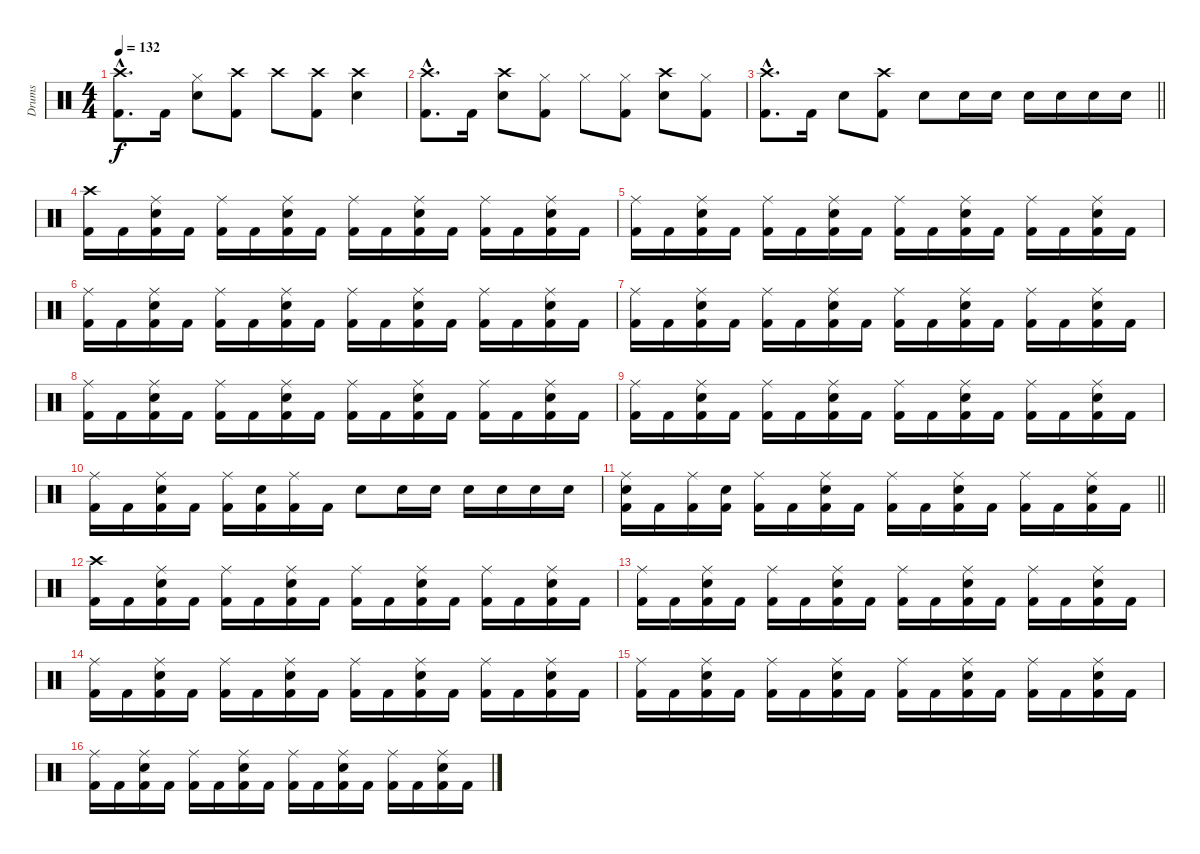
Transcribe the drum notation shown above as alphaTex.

\track ("Drums" "Drums") {instrument percussion}
\staff {score}
\articulation defaults
\ts (4 4)
\tempo 132
\clef neutral
\ks c
("Crash high (hit)"{hac} "Kick (hit) 2"{hac}).8{d dy f} "Kick (hit) 2".16 ("Hi-Hat (closed)" "Snare (hit) 2").8 ("Crash high (hit)" "Kick (hit) 2").8 "Crash high (hit)".8 ("Crash high (hit)" "Kick (hit) 2").8 ("Crash high (hit)" "Snare (hit) 2").4 |
("Crash high (hit)"{hac} "Kick (hit) 2"{hac}).8{d} "Kick (hit) 2".16 ("Crash high (hit)" "Snare (hit) 2").8 ("Hi-Hat (closed)" "Kick (hit) 2").8 "Hi-Hat (closed)".8 ("Hi-Hat (closed)" "Kick (hit) 2").8 ("Crash high (hit)" "Snare (hit) 2").8 ("Hi-Hat (closed)" "Kick (hit) 2").8 |
\barLineRight lightlight
("Crash high (hit)"{hac} "Kick (hit) 2"{hac}).8{d} "Kick (hit) 2".16 "Snare (hit) 2".8 ("Crash high (hit)" "Kick (hit) 2").8 "Snare (hit) 2".8 "Snare (hit) 2".16 "Snare (hit) 2".16 "Snare (hit) 2".16 "Snare (hit) 2".16 "Snare (hit) 2".16 "Snare (hit) 2".16 |
("Crash high (hit)" "Kick (hit) 2").16 "Kick (hit) 2".16 ("Ride (middle)" "Snare (hit) 2" "Kick (hit) 2").16 "Kick (hit) 2".16 ("Ride (middle)" "Kick (hit) 2").16 "Kick (hit) 2".16 ("Ride (middle)" "Snare (hit) 2" "Kick (hit) 2").16 "Kick (hit) 2".16 ("Ride (middle)" "Kick (hit) 2").16 "Kick (hit) 2".16 ("Ride (middle)" "Snare (hit) 2" "Kick (hit) 2").16 "Kick (hit) 2".16 ("Ride (middle)" "Kick (hit) 2").16 "Kick (hit) 2".16 ("Ride (middle)" "Snare (hit) 2" "Kick (hit) 2").16 "Kick (hit) 2".16 |
("Ride (middle)" "Kick (hit) 2").16 "Kick (hit) 2".16 ("Ride (middle)" "Snare (hit) 2" "Kick (hit) 2").16 "Kick (hit) 2".16 ("Ride (middle)" "Kick (hit) 2").16 "Kick (hit) 2".16 ("Ride (middle)" "Snare (hit) 2" "Kick (hit) 2").16 "Kick (hit) 2".16 ("Ride (middle)" "Kick (hit) 2").16 "Kick (hit) 2".16 ("Ride (middle)" "Snare (hit) 2" "Kick (hit) 2").16 "Kick (hit) 2".16 ("Ride (middle)" "Kick (hit) 2").16 "Kick (hit) 2".16 ("Ride (middle)" "Snare (hit) 2" "Kick (hit) 2").16 "Kick (hit) 2".16 |
("Ride (middle)" "Kick (hit) 2").16 "Kick (hit) 2".16 ("Ride (middle)" "Snare (hit) 2" "Kick (hit) 2").16 "Kick (hit) 2".16 ("Ride (middle)" "Kick (hit) 2").16 "Kick (hit) 2".16 ("Ride (middle)" "Snare (hit) 2" "Kick (hit) 2").16 "Kick (hit) 2".16 ("Ride (middle)" "Kick (hit) 2").16 "Kick (hit) 2".16 ("Ride (middle)" "Snare (hit) 2" "Kick (hit) 2").16 "Kick (hit) 2".16 ("Ride (middle)" "Kick (hit) 2").16 "Kick (hit) 2".16 ("Ride (middle)" "Snare (hit) 2" "Kick (hit) 2").16 "Kick (hit) 2".16 |
("Ride (middle)" "Kick (hit) 2").16 "Kick (hit) 2".16 ("Ride (middle)" "Snare (hit) 2" "Kick (hit) 2").16 "Kick (hit) 2".16 ("Ride (middle)" "Kick (hit) 2").16 "Kick (hit) 2".16 ("Ride (middle)" "Snare (hit) 2" "Kick (hit) 2").16 "Kick (hit) 2".16 ("Ride (middle)" "Kick (hit) 2").16 "Kick (hit) 2".16 ("Ride (middle)" "Snare (hit) 2" "Kick (hit) 2").16 "Kick (hit) 2".16 ("Ride (middle)" "Kick (hit) 2").16 "Kick (hit) 2".16 ("Ride (middle)" "Snare (hit) 2" "Kick (hit) 2").16 "Kick (hit) 2".16 |
("Ride (middle)" "Kick (hit) 2").16 "Kick (hit) 2".16 ("Ride (middle)" "Snare (hit) 2" "Kick (hit) 2").16 "Kick (hit) 2".16 ("Ride (middle)" "Kick (hit) 2").16 "Kick (hit) 2".16 ("Ride (middle)" "Snare (hit) 2" "Kick (hit) 2").16 "Kick (hit) 2".16 ("Ride (middle)" "Kick (hit) 2").16 "Kick (hit) 2".16 ("Ride (middle)" "Snare (hit) 2" "Kick (hit) 2").16 "Kick (hit) 2".16 ("Ride (middle)" "Kick (hit) 2").16 "Kick (hit) 2".16 ("Ride (middle)" "Snare (hit) 2" "Kick (hit) 2").16 "Kick (hit) 2".16 |
("Ride (middle)" "Kick (hit) 2").16 "Kick (hit) 2".16 ("Ride (middle)" "Snare (hit) 2" "Kick (hit) 2").16 "Kick (hit) 2".16 ("Ride (middle)" "Kick (hit) 2").16 "Kick (hit) 2".16 ("Ride (middle)" "Snare (hit) 2" "Kick (hit) 2").16 "Kick (hit) 2".16 ("Ride (middle)" "Kick (hit) 2").16 "Kick (hit) 2".16 ("Ride (middle)" "Snare (hit) 2" "Kick (hit) 2").16 "Kick (hit) 2".16 ("Ride (middle)" "Kick (hit) 2").16 "Kick (hit) 2".16 ("Ride (middle)" "Snare (hit) 2" "Kick (hit) 2").16 "Kick (hit) 2".16 |
("Ride (middle)" "Kick (hit) 2").16 "Kick (hit) 2".16 ("Ride (middle)" "Snare (hit) 2" "Kick (hit) 2").16 "Kick (hit) 2".16 ("Ride (middle)" "Kick (hit) 2").16 ("Snare (hit) 2" "Kick (hit) 2").16 ("Ride (middle)" "Kick (hit) 2").16 "Kick (hit) 2".16 "Snare (hit) 2".8 "Snare (hit) 2".16 "Snare (hit) 2".16 "Snare (hit) 2".16 "Snare (hit) 2".16 "Snare (hit) 2".16 "Snare (hit) 2".16 |
\barLineRight lightlight
("Ride (middle)" "Snare (hit) 2" "Kick (hit) 2").16 "Kick (hit) 2".16 ("Ride (middle)" "Kick (hit) 2").16 ("Snare (hit) 2" "Kick (hit) 2").16 ("Ride (middle)" "Kick (hit) 2").16 "Kick (hit) 2".16 ("Ride (middle)" "Snare (hit) 2" "Kick (hit) 2").16 "Kick (hit) 2".16 ("Ride (middle)" "Kick (hit) 2").16 "Kick (hit) 2".16 ("Ride (middle)" "Snare (hit) 2" "Kick (hit) 2").16 "Kick (hit) 2".16 ("Ride (middle)" "Kick (hit) 2").16 "Kick (hit) 2".16 ("Ride (middle)" "Snare (hit) 2" "Kick (hit) 2").16 "Kick (hit) 2".16 |
("Crash high (hit)" "Kick (hit) 2").16 "Kick (hit) 2".16 ("Ride (middle)" "Snare (hit) 2" "Kick (hit) 2").16 "Kick (hit) 2".16 ("Ride (middle)" "Kick (hit) 2").16 "Kick (hit) 2".16 ("Ride (middle)" "Snare (hit) 2" "Kick (hit) 2").16 "Kick (hit) 2".16 ("Ride (middle)" "Kick (hit) 2").16 "Kick (hit) 2".16 ("Ride (middle)" "Snare (hit) 2" "Kick (hit) 2").16 "Kick (hit) 2".16 ("Ride (middle)" "Kick (hit) 2").16 "Kick (hit) 2".16 ("Ride (middle)" "Snare (hit) 2" "Kick (hit) 2").16 "Kick (hit) 2".16 |
("Ride (middle)" "Kick (hit) 2").16 "Kick (hit) 2".16 ("Ride (middle)" "Snare (hit) 2" "Kick (hit) 2").16 "Kick (hit) 2".16 ("Ride (middle)" "Kick (hit) 2").16 "Kick (hit) 2".16 ("Ride (middle)" "Snare (hit) 2" "Kick (hit) 2").16 "Kick (hit) 2".16 ("Ride (middle)" "Kick (hit) 2").16 "Kick (hit) 2".16 ("Ride (middle)" "Snare (hit) 2" "Kick (hit) 2").16 "Kick (hit) 2".16 ("Ride (middle)" "Kick (hit) 2").16 "Kick (hit) 2".16 ("Ride (middle)" "Snare (hit) 2" "Kick (hit) 2").16 "Kick (hit) 2".16 |
("Ride (middle)" "Kick (hit) 2").16 "Kick (hit) 2".16 ("Ride (middle)" "Snare (hit) 2" "Kick (hit) 2").16 "Kick (hit) 2".16 ("Ride (middle)" "Kick (hit) 2").16 "Kick (hit) 2".16 ("Ride (middle)" "Snare (hit) 2" "Kick (hit) 2").16 "Kick (hit) 2".16 ("Ride (middle)" "Kick (hit) 2").16 "Kick (hit) 2".16 ("Ride (middle)" "Snare (hit) 2" "Kick (hit) 2").16 "Kick (hit) 2".16 ("Ride (middle)" "Kick (hit) 2").16 "Kick (hit) 2".16 ("Ride (middle)" "Snare (hit) 2" "Kick (hit) 2").16 "Kick (hit) 2".16 |
("Ride (middle)" "Kick (hit) 2").16 "Kick (hit) 2".16 ("Ride (middle)" "Snare (hit) 2" "Kick (hit) 2").16 "Kick (hit) 2".16 ("Ride (middle)" "Kick (hit) 2").16 "Kick (hit) 2".16 ("Ride (middle)" "Snare (hit) 2" "Kick (hit) 2").16 "Kick (hit) 2".16 ("Ride (middle)" "Kick (hit) 2").16 "Kick (hit) 2".16 ("Ride (middle)" "Snare (hit) 2" "Kick (hit) 2").16 "Kick (hit) 2".16 ("Ride (middle)" "Kick (hit) 2").16 "Kick (hit) 2".16 ("Ride (middle)" "Snare (hit) 2" "Kick (hit) 2").16 "Kick (hit) 2".16 |
("Ride (middle)" "Kick (hit) 2").16 "Kick (hit) 2".16 ("Ride (middle)" "Snare (hit) 2" "Kick (hit) 2").16 "Kick (hit) 2".16 ("Ride (middle)" "Kick (hit) 2").16 "Kick (hit) 2".16 ("Ride (middle)" "Snare (hit) 2" "Kick (hit) 2").16 "Kick (hit) 2".16 ("Ride (middle)" "Kick (hit) 2").16 "Kick (hit) 2".16 ("Ride (middle)" "Snare (hit) 2" "Kick (hit) 2").16 "Kick (hit) 2".16 ("Ride (middle)" "Kick (hit) 2").16 "Kick (hit) 2".16 ("Ride (middle)" "Snare (hit) 2" "Kick (hit) 2").16 "Kick (hit) 2".16
